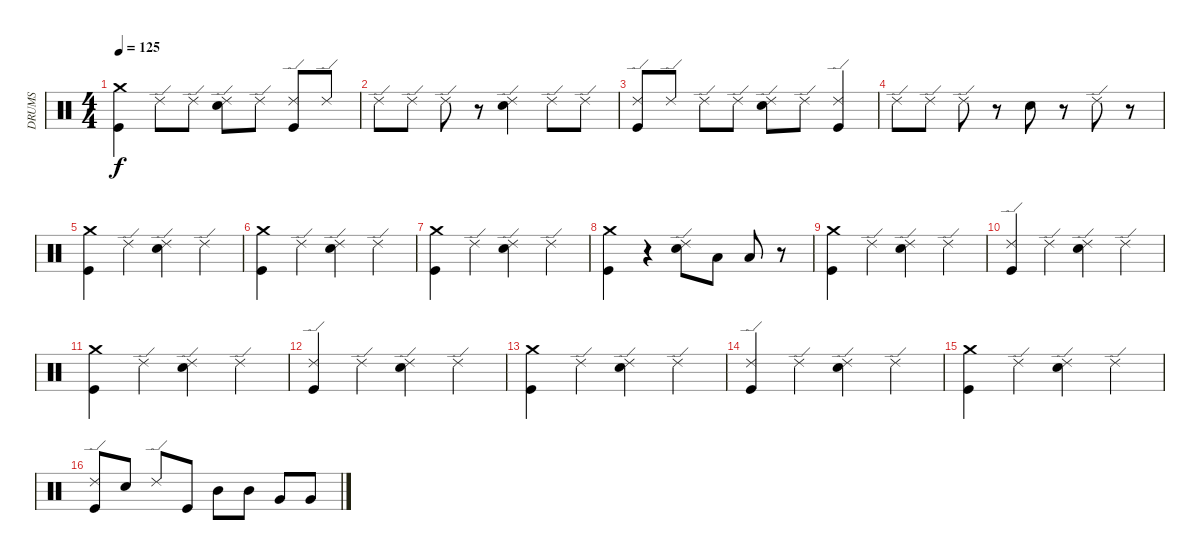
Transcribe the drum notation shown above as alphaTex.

\track ("DRUMS" "DRUMS") {instrument percussion}
\staff {score}
\articulation defaults
\ts (4 4)
\tempo 125
\clef neutral
\ks c
("Kick (hit)" "Crash medium (hit)").4{dy f} "Ride (edge) 2".8 "Ride (edge) 2".8 ("Snare (hit) 2" "Ride (edge) 2").8 "Ride (edge) 2".8 ("Kick (hit)" "Ride (edge) 2").8 "Ride (edge) 2".8 |
"Ride (edge) 2".8 "Ride (edge) 2".8 "Ride (edge) 2".8 r.8 ("Ride (edge) 2" "Snare (hit) 2").4 "Ride (edge) 2".8 "Ride (edge) 2".8 |
("Ride (edge) 2" "Kick (hit)").8 "Ride (edge) 2".8 "Ride (edge) 2".8 "Ride (edge) 2".8 ("Ride (edge) 2" "Snare (hit) 2").8 "Ride (edge) 2".8 ("Ride (edge) 2" "Kick (hit)").4 |
"Ride (edge) 2".8 "Ride (edge) 2".8 "Ride (edge) 2".8 r.8 "Snare (hit) 2".8 r.8 "Ride (edge) 2".8 r.8 |
("Crash medium (hit)" "Kick (hit)").4 "Ride (edge) 2".4 ("Snare (hit) 2" "Ride (edge) 2").4 "Ride (edge) 2".4 |
("Crash medium (hit)" "Kick (hit)").4 "Ride (edge) 2".4 ("Snare (hit) 2" "Ride (edge) 2").4 "Ride (edge) 2".4 |
("Crash medium (hit)" "Kick (hit)").4 "Ride (edge) 2".4 ("Snare (hit) 2" "Ride (edge) 2").4 "Ride (edge) 2".4 |
("Crash medium (hit)" "Kick (hit)").4 r.4 ("Ride (edge) 2" "Snare (hit) 2").8 "Low Floor Tom (hit)".8 "Low Floor Tom (hit)".8 r.8 |
("Crash medium (hit)" "Kick (hit)").4 "Ride (edge) 2".4 ("Snare (hit) 2" "Ride (edge) 2").4 "Ride (edge) 2".4 |
("Ride (edge) 2" "Kick (hit)").4 "Ride (edge) 2".4 ("Ride (edge) 2" "Snare (hit) 2").4 "Ride (edge) 2".4 |
("Crash medium (hit)" "Kick (hit)").4 "Ride (edge) 2".4 ("Snare (hit) 2" "Ride (edge) 2").4 "Ride (edge) 2".4 |
("Ride (edge) 2" "Kick (hit)").4 "Ride (edge) 2".4 ("Ride (edge) 2" "Snare (hit) 2").4 "Ride (edge) 2".4 |
("Crash medium (hit)" "Kick (hit)").4 "Ride (edge) 2".4 ("Snare (hit) 2" "Ride (edge) 2").4 "Ride (edge) 2".4 |
("Ride (edge) 2" "Kick (hit)").4 "Ride (edge) 2".4 ("Ride (edge) 2" "Snare (hit) 2").4 "Ride (edge) 2".4 |
("Crash medium (hit)" "Kick (hit)").4 "Ride (edge) 2".4 ("Ride (edge) 2" "Snare (hit) 2").4 "Ride (edge) 2".4 |
("Kick (hit)" "Ride (edge) 2").8 "Snare (hit) 2".8 "Ride (edge) 2".8 "Kick (hit)".8 "Mid Tom (hit)".8 "Mid Tom (hit)".8 "Very Low Tom (hit)".8 "Very Low Tom (hit)".8
